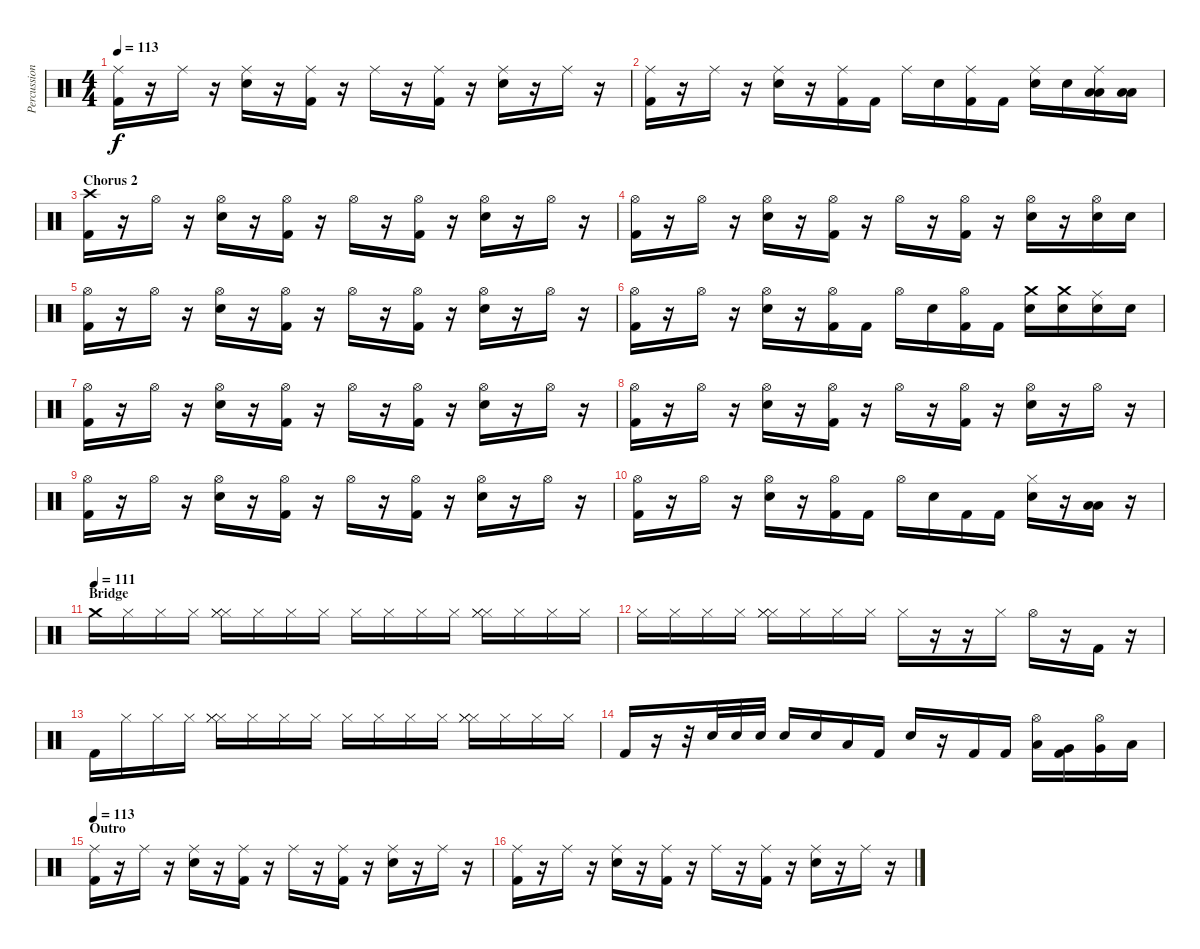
\track ("Percussion" "Percussion") {instrument percussion}
\staff {score}
\articulation defaults
\ts (4 4)
\tempo 113
\clef neutral
\ks c
("Ride (middle)" "Kick (hit) 2").16{dy f} r.16 "Ride (middle)".16 r.16 ("Ride (middle)" "Snare (hit) 2").16 r.16 ("Ride (middle)" "Kick (hit) 2").16 r.16 "Ride (middle)".16 r.16 ("Ride (middle)" "Kick (hit) 2").16 r.16 ("Ride (middle)" "Snare (hit) 2").16 r.16 "Ride (middle)".16 r.16 |
("Ride (middle)" "Kick (hit) 2").16 r.16 "Ride (middle)".16 r.16 ("Ride (middle)" "Snare (hit) 2").16 r.16 ("Ride (middle)" "Kick (hit) 2").16 "Kick (hit) 2".16 "Ride (middle)".16 "Snare (hit) 2".16 ("Ride (middle)" "Kick (hit) 2").16 "Kick (hit) 2".16 ("Ride (middle)" "Snare (hit) 2").16 "Snare (hit) 2".16 ("Ride (middle)" "Low Tom (hit)" "Low Tom (hit)").16 ("Low Tom (hit)" "Low Tom (hit)").16 |
\section ("" "Chorus 2")
("Crash high (hit)" "Kick (hit) 2").16 r.16 "Hi-Hat (open)".16 r.16 ("Hi-Hat (open)" "Snare (hit) 2").16 r.16 ("Hi-Hat (open)" "Kick (hit) 2").16 r.16 "Hi-Hat (open)".16 r.16 ("Hi-Hat (open)" "Kick (hit) 2").16 r.16 ("Hi-Hat (open)" "Snare (hit) 2").16 r.16 "Hi-Hat (open)".16 r.16 |
("Hi-Hat (open)" "Kick (hit) 2").16 r.16 "Hi-Hat (open)".16 r.16 ("Hi-Hat (open)" "Snare (hit) 2").16 r.16 ("Hi-Hat (open)" "Kick (hit) 2").16 r.16 "Hi-Hat (open)".16 r.16 ("Hi-Hat (open)" "Kick (hit) 2").16 r.16 ("Hi-Hat (open)" "Snare (hit) 2").16 r.16 ("Hi-Hat (open)" "Snare (hit) 2").16 "Snare (hit) 2".16 |
("Hi-Hat (open)" "Kick (hit) 2").16 r.16 "Hi-Hat (open)".16 r.16 ("Hi-Hat (open)" "Snare (hit) 2").16 r.16 ("Hi-Hat (open)" "Kick (hit) 2").16 r.16 "Hi-Hat (open)".16 r.16 ("Hi-Hat (open)" "Kick (hit) 2").16 r.16 ("Hi-Hat (open)" "Snare (hit) 2").16 r.16 "Hi-Hat (open)".16 r.16 |
("Hi-Hat (open)" "Kick (hit) 2").16 r.16 "Hi-Hat (open)".16 r.16 ("Hi-Hat (open)" "Snare (hit) 2").16 r.16 ("Hi-Hat (open)" "Kick (hit) 2").16 "Kick (hit) 2".16 "Hi-Hat (open)".16 "Snare (hit) 2".16 ("Hi-Hat (open)" "Kick (hit) 2").16 "Kick (hit) 2".16 ("Crash medium (hit)" "Snare (hit) 2").16 ("Crash medium (hit)" "Snare (hit) 2").16 ("Ride (middle)" "Snare (hit) 2").16 "Snare (hit) 2".16 |
("Hi-Hat (open)" "Kick (hit) 2").16 r.16 "Hi-Hat (open)".16 r.16 ("Hi-Hat (open)" "Snare (hit) 2").16 r.16 ("Hi-Hat (open)" "Kick (hit) 2").16 r.16 "Hi-Hat (open)".16 r.16 ("Hi-Hat (open)" "Kick (hit) 2").16 r.16 ("Hi-Hat (open)" "Snare (hit) 2").16 r.16 "Hi-Hat (open)".16 r.16 |
("Hi-Hat (open)" "Kick (hit) 2").16 r.16 "Hi-Hat (open)".16 r.16 ("Hi-Hat (open)" "Snare (hit) 2").16 r.16 ("Hi-Hat (open)" "Kick (hit) 2").16 r.16 "Hi-Hat (open)".16 r.16 ("Hi-Hat (open)" "Kick (hit) 2").16 r.16 ("Hi-Hat (open)" "Snare (hit) 2").16 r.16 "Hi-Hat (open)".16 r.16 |
("Hi-Hat (open)" "Kick (hit) 2").16 r.16 "Hi-Hat (open)".16 r.16 ("Hi-Hat (open)" "Snare (hit) 2").16 r.16 ("Hi-Hat (open)" "Kick (hit) 2").16 r.16 "Hi-Hat (open)".16 r.16 ("Hi-Hat (open)" "Kick (hit) 2").16 r.16 ("Hi-Hat (open)" "Snare (hit) 2").16 r.16 "Hi-Hat (open)".16 r.16 |
("Hi-Hat (open)" "Kick (hit) 2").16 r.16 "Hi-Hat (open)".16 r.16 ("Hi-Hat (open)" "Snare (hit) 2").16 r.16 ("Hi-Hat (open)" "Kick (hit) 2").16 "Kick (hit) 2".16 "Hi-Hat (open)".16 "Snare (hit) 2".16 "Kick (hit) 2".16 "Kick (hit) 2".16 ("Hi-Hat (closed)" "Snare (hit) 2").16 r.16 ("Low Tom (hit)" "Low Tom (hit)").16 r.16 |
\section ("" "Bridge")
\tempo (111)
"Crash medium (hit)".16 "Hi-Hat (closed)".16 "Hi-Hat (closed)".16 "Hi-Hat (closed)".16 ("Hi-Hat (closed)" "Hi-Hat (closed)" "Hi-Hat (closed)").16 "Hi-Hat (closed)".16 "Hi-Hat (closed)".16 "Hi-Hat (closed)".16 "Hi-Hat (closed)".16 "Hi-Hat (closed)".16 "Hi-Hat (closed)".16 "Hi-Hat (closed)".16 ("Hi-Hat (closed)" "Hi-Hat (closed)" "Hi-Hat (closed)").16 "Hi-Hat (closed)".16 "Hi-Hat (closed)".16 "Hi-Hat (closed)".16 |
"Hi-Hat (closed)".16 "Hi-Hat (closed)".16 "Hi-Hat (closed)".16 "Hi-Hat (closed)".16 ("Hi-Hat (closed)" "Hi-Hat (closed)" "Hi-Hat (closed)").16 "Hi-Hat (closed)".16 "Hi-Hat (closed)".16 "Hi-Hat (closed)".16 "Hi-Hat (closed)".16 r.16 r.16 "Hi-Hat (closed)".16 "Hi-Hat (open)".16 r.16 "Kick (hit) 2".16 r.16 |
"Kick (hit) 2".16 "Hi-Hat (closed)".16 "Hi-Hat (closed)".16 "Hi-Hat (closed)".16 ("Hi-Hat (closed)" "Hi-Hat (closed)" "Hi-Hat (closed)").16 "Hi-Hat (closed)".16 "Hi-Hat (closed)".16 "Hi-Hat (closed)".16 "Hi-Hat (closed)".16 "Hi-Hat (closed)".16 "Hi-Hat (closed)".16 "Hi-Hat (closed)".16 ("Hi-Hat (closed)" "Hi-Hat (closed)" "Hi-Hat (closed)").16 "Hi-Hat (closed)".16 "Hi-Hat (closed)".16 "Hi-Hat (closed)".16 |
"Kick (hit) 2".16 r.16 r.32 "Electric Snare (hit)".32 "Electric Snare (hit)".32 "Electric Snare (hit)".32 "Electric Snare (hit)".16 "Electric Snare (hit)".16 "Low Tom (hit)".16 "Kick (hit) 2".16 "Electric Snare (hit)".16 r.16 "Kick (hit) 2".16 "Kick (hit) 2".16 ("Hi-Hat (open)" "Low Tom (hit)").16 ("Very Low Tom (hit)" "Kick (hit) 2").16 ("Hi-Hat (open)" "Very Low Tom (hit)").16 "Low Floor Tom (hit)".16 |
\section ("" "Outro")
\tempo 113
("Ride (middle)" "Kick (hit) 2").16 r.16 "Ride (middle)".16 r.16 ("Ride (middle)" "Snare (hit) 2").16 r.16 ("Ride (middle)" "Kick (hit) 2").16 r.16 "Ride (middle)".16 r.16 ("Ride (middle)" "Kick (hit) 2").16 r.16 ("Ride (middle)" "Snare (hit) 2").16 r.16 "Ride (middle)".16 r.16 |
("Ride (middle)" "Kick (hit) 2").16 r.16 "Ride (middle)".16 r.16 ("Ride (middle)" "Snare (hit) 2").16 r.16 ("Ride (middle)" "Kick (hit) 2").16 r.16 "Ride (middle)".16 r.16 ("Ride (middle)" "Kick (hit) 2").16 r.16 ("Ride (middle)" "Snare (hit) 2").16 r.16 "Ride (middle)".16 r.16
